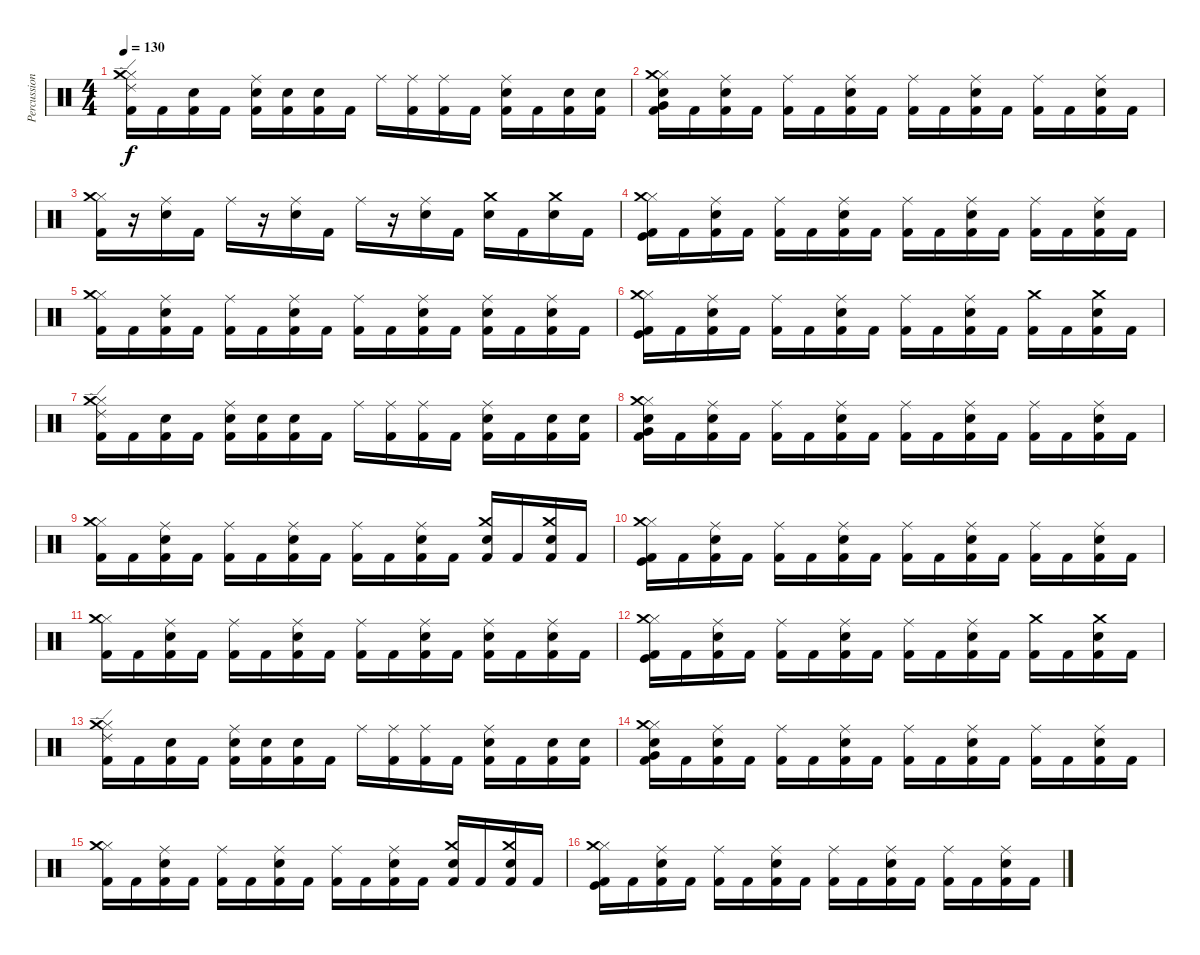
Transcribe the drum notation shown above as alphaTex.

\track ("Percussion" "Percussion") {instrument percussion}
\staff {score}
\articulation defaults
\ts (4 4)
\tempo 130
\clef neutral
\ks c
("Kick (hit) 2" "Hi-Hat (closed)" "Ride (edge) 2" "Crash medium (hit)").16{dy f} "Kick (hit) 2".16 ("Kick (hit) 2" "Snare (hit) 2").16 "Kick (hit) 2".16 ("Kick (hit) 2" "Snare (hit) 2" "Ride (middle)").16 ("Kick (hit) 2" "Snare (hit) 2").16 ("Kick (hit) 2" "Snare (hit) 2").16 "Kick (hit) 2".16 "Ride (middle)".16 ("Kick (hit) 2" "Ride (middle)").16 ("Kick (hit) 2" "Ride (middle)").16 "Kick (hit) 2".16 ("Kick (hit) 2" "Snare (hit) 2" "Ride (middle)").16 "Kick (hit) 2".16 ("Kick (hit) 2" "Snare (hit) 2").16 ("Kick (hit) 2" "Snare (hit) 2").16 |
("Kick (hit) 2" "Snare (hit) 2" "Hi-Hat (closed)" "Crash medium (hit)" "Very Low Tom (hit)").16 "Kick (hit) 2".16 ("Kick (hit) 2" "Snare (hit) 2" "Ride (middle)").16 "Kick (hit) 2".16 ("Kick (hit) 2" "Ride (middle)").16 "Kick (hit) 2".16 ("Kick (hit) 2" "Snare (hit) 2" "Ride (middle)").16 "Kick (hit) 2".16 ("Kick (hit) 2" "Ride (middle)").16 "Kick (hit) 2".16 ("Kick (hit) 2" "Snare (hit) 2" "Ride (middle)").16 "Kick (hit) 2".16 ("Kick (hit) 2" "Ride (middle)").16 "Kick (hit) 2".16 ("Kick (hit) 2" "Snare (hit) 2" "Ride (middle)").16 "Kick (hit) 2".16 |
("Kick (hit) 2" "Hi-Hat (closed)" "Crash medium (hit)").16 r.16 ("Snare (hit) 2" "Ride (middle)").16 "Kick (hit) 2".16 "Ride (middle)".16 r.16 ("Snare (hit) 2" "Ride (middle)").16 "Kick (hit) 2".16 "Ride (middle)".16 r.16 ("Snare (hit) 2" "Ride (middle)").16 "Kick (hit) 2".16 ("Snare (hit) 2" "Crash medium (hit)").16 "Kick (hit) 2".16 ("Snare (hit) 2" "Crash medium (hit)").16 "Kick (hit) 2".16 |
("Kick (hit) 2" "Hi-Hat (closed)" "Kick (hit)" "Crash medium (hit)").16 "Kick (hit) 2".16 ("Kick (hit) 2" "Snare (hit) 2" "Ride (middle)").16 "Kick (hit) 2".16 ("Kick (hit) 2" "Ride (middle)").16 "Kick (hit) 2".16 ("Kick (hit) 2" "Snare (hit) 2" "Ride (middle)").16 "Kick (hit) 2".16 ("Kick (hit) 2" "Ride (middle)").16 "Kick (hit) 2".16 ("Kick (hit) 2" "Snare (hit) 2" "Ride (middle)").16 "Kick (hit) 2".16 ("Kick (hit) 2" "Ride (middle)").16 "Kick (hit) 2".16 ("Kick (hit) 2" "Snare (hit) 2" "Ride (middle)").16 "Kick (hit) 2".16 |
("Kick (hit) 2" "Hi-Hat (closed)" "Crash medium (hit)").16 "Kick (hit) 2".16 ("Kick (hit) 2" "Snare (hit) 2" "Ride (middle)").16 "Kick (hit) 2".16 ("Kick (hit) 2" "Ride (middle)").16 "Kick (hit) 2".16 ("Kick (hit) 2" "Snare (hit) 2" "Ride (middle)").16 "Kick (hit) 2".16 ("Kick (hit) 2" "Ride (middle)").16 "Kick (hit) 2".16 ("Kick (hit) 2" "Snare (hit) 2" "Ride (middle)").16 "Kick (hit) 2".16 ("Kick (hit) 2" "Snare (hit) 2" "Ride (middle)").16 "Kick (hit) 2".16 ("Kick (hit) 2" "Snare (hit) 2" "Ride (middle)").16 "Kick (hit) 2".16 |
("Kick (hit) 2" "Hi-Hat (closed)" "Kick (hit)" "Crash medium (hit)").16 "Kick (hit) 2".16 ("Kick (hit) 2" "Snare (hit) 2" "Ride (middle)").16 "Kick (hit) 2".16 ("Kick (hit) 2" "Ride (middle)").16 "Kick (hit) 2".16 ("Kick (hit) 2" "Snare (hit) 2" "Ride (middle)").16 "Kick (hit) 2".16 ("Kick (hit) 2" "Ride (middle)").16 "Kick (hit) 2".16 ("Kick (hit) 2" "Snare (hit) 2" "Ride (middle)").16 "Kick (hit) 2".16 ("Kick (hit) 2" "Crash medium (hit)").16 "Kick (hit) 2".16 ("Kick (hit) 2" "Snare (hit) 2" "Crash medium (hit)").16 "Kick (hit) 2".16 |
("Kick (hit) 2" "Hi-Hat (closed)" "Ride (edge) 2" "Crash medium (hit)").16 "Kick (hit) 2".16 ("Kick (hit) 2" "Snare (hit) 2").16 "Kick (hit) 2".16 ("Kick (hit) 2" "Snare (hit) 2" "Ride (middle)").16 ("Kick (hit) 2" "Snare (hit) 2").16 ("Kick (hit) 2" "Snare (hit) 2").16 "Kick (hit) 2".16 "Ride (middle)".16 ("Kick (hit) 2" "Ride (middle)").16 ("Kick (hit) 2" "Ride (middle)").16 "Kick (hit) 2".16 ("Kick (hit) 2" "Snare (hit) 2" "Ride (middle)").16 "Kick (hit) 2".16 ("Kick (hit) 2" "Snare (hit) 2").16 ("Kick (hit) 2" "Snare (hit) 2").16 |
("Kick (hit) 2" "Snare (hit) 2" "Hi-Hat (closed)" "Crash medium (hit)" "Very Low Tom (hit)").16 "Kick (hit) 2".16 ("Kick (hit) 2" "Snare (hit) 2" "Ride (middle)").16 "Kick (hit) 2".16 ("Kick (hit) 2" "Ride (middle)").16 "Kick (hit) 2".16 ("Kick (hit) 2" "Snare (hit) 2" "Ride (middle)").16 "Kick (hit) 2".16 ("Kick (hit) 2" "Ride (middle)").16 "Kick (hit) 2".16 ("Kick (hit) 2" "Snare (hit) 2" "Ride (middle)").16 "Kick (hit) 2".16 ("Kick (hit) 2" "Ride (middle)").16 "Kick (hit) 2".16 ("Kick (hit) 2" "Snare (hit) 2" "Ride (middle)").16 "Kick (hit) 2".16 |
("Kick (hit) 2" "Hi-Hat (closed)" "Crash medium (hit)").16 "Kick (hit) 2".16 ("Kick (hit) 2" "Snare (hit) 2" "Ride (middle)").16 "Kick (hit) 2".16 ("Kick (hit) 2" "Ride (middle)").16 "Kick (hit) 2".16 ("Kick (hit) 2" "Snare (hit) 2" "Ride (middle)").16 "Kick (hit) 2".16 ("Kick (hit) 2" "Ride (middle)").16 "Kick (hit) 2".16 ("Kick (hit) 2" "Snare (hit) 2" "Ride (middle)").16 "Kick (hit) 2".16 ("Kick (hit) 2" "Snare (hit) 2" "Crash medium (hit)").16 "Kick (hit) 2".16 ("Kick (hit) 2" "Snare (hit) 2" "Crash medium (hit)").16 "Kick (hit) 2".16 |
("Kick (hit) 2" "Hi-Hat (closed)" "Kick (hit)" "Crash medium (hit)").16 "Kick (hit) 2".16 ("Kick (hit) 2" "Snare (hit) 2" "Ride (middle)").16 "Kick (hit) 2".16 ("Kick (hit) 2" "Ride (middle)").16 "Kick (hit) 2".16 ("Kick (hit) 2" "Snare (hit) 2" "Ride (middle)").16 "Kick (hit) 2".16 ("Kick (hit) 2" "Ride (middle)").16 "Kick (hit) 2".16 ("Kick (hit) 2" "Snare (hit) 2" "Ride (middle)").16 "Kick (hit) 2".16 ("Kick (hit) 2" "Ride (middle)").16 "Kick (hit) 2".16 ("Kick (hit) 2" "Snare (hit) 2" "Ride (middle)").16 "Kick (hit) 2".16 |
("Kick (hit) 2" "Hi-Hat (closed)" "Crash medium (hit)").16 "Kick (hit) 2".16 ("Kick (hit) 2" "Snare (hit) 2" "Ride (middle)").16 "Kick (hit) 2".16 ("Kick (hit) 2" "Ride (middle)").16 "Kick (hit) 2".16 ("Kick (hit) 2" "Snare (hit) 2" "Ride (middle)").16 "Kick (hit) 2".16 ("Kick (hit) 2" "Ride (middle)").16 "Kick (hit) 2".16 ("Kick (hit) 2" "Snare (hit) 2" "Ride (middle)").16 "Kick (hit) 2".16 ("Kick (hit) 2" "Snare (hit) 2" "Ride (middle)").16 "Kick (hit) 2".16 ("Kick (hit) 2" "Snare (hit) 2" "Ride (middle)").16 "Kick (hit) 2".16 |
("Kick (hit) 2" "Hi-Hat (closed)" "Kick (hit)" "Crash medium (hit)").16 "Kick (hit) 2".16 ("Kick (hit) 2" "Snare (hit) 2" "Ride (middle)").16 "Kick (hit) 2".16 ("Kick (hit) 2" "Ride (middle)").16 "Kick (hit) 2".16 ("Kick (hit) 2" "Snare (hit) 2" "Ride (middle)").16 "Kick (hit) 2".16 ("Kick (hit) 2" "Ride (middle)").16 "Kick (hit) 2".16 ("Kick (hit) 2" "Snare (hit) 2" "Ride (middle)").16 "Kick (hit) 2".16 ("Kick (hit) 2" "Crash medium (hit)").16 "Kick (hit) 2".16 ("Kick (hit) 2" "Snare (hit) 2" "Crash medium (hit)").16 "Kick (hit) 2".16 |
("Kick (hit) 2" "Hi-Hat (closed)" "Ride (edge) 2" "Crash medium (hit)").16 "Kick (hit) 2".16 ("Kick (hit) 2" "Snare (hit) 2").16 "Kick (hit) 2".16 ("Kick (hit) 2" "Snare (hit) 2" "Ride (middle)").16 ("Kick (hit) 2" "Snare (hit) 2").16 ("Kick (hit) 2" "Snare (hit) 2").16 "Kick (hit) 2".16 "Ride (middle)".16 ("Kick (hit) 2" "Ride (middle)").16 ("Kick (hit) 2" "Ride (middle)").16 "Kick (hit) 2".16 ("Kick (hit) 2" "Snare (hit) 2" "Ride (middle)").16 "Kick (hit) 2".16 ("Kick (hit) 2" "Snare (hit) 2").16 ("Kick (hit) 2" "Snare (hit) 2").16 |
("Kick (hit) 2" "Snare (hit) 2" "Hi-Hat (closed)" "Crash medium (hit)" "Very Low Tom (hit)").16 "Kick (hit) 2".16 ("Kick (hit) 2" "Snare (hit) 2" "Ride (middle)").16 "Kick (hit) 2".16 ("Kick (hit) 2" "Ride (middle)").16 "Kick (hit) 2".16 ("Kick (hit) 2" "Snare (hit) 2" "Ride (middle)").16 "Kick (hit) 2".16 ("Kick (hit) 2" "Ride (middle)").16 "Kick (hit) 2".16 ("Kick (hit) 2" "Snare (hit) 2" "Ride (middle)").16 "Kick (hit) 2".16 ("Kick (hit) 2" "Ride (middle)").16 "Kick (hit) 2".16 ("Kick (hit) 2" "Snare (hit) 2" "Ride (middle)").16 "Kick (hit) 2".16 |
("Kick (hit) 2" "Hi-Hat (closed)" "Crash medium (hit)").16 "Kick (hit) 2".16 ("Kick (hit) 2" "Snare (hit) 2" "Ride (middle)").16 "Kick (hit) 2".16 ("Kick (hit) 2" "Ride (middle)").16 "Kick (hit) 2".16 ("Kick (hit) 2" "Snare (hit) 2" "Ride (middle)").16 "Kick (hit) 2".16 ("Kick (hit) 2" "Ride (middle)").16 "Kick (hit) 2".16 ("Kick (hit) 2" "Snare (hit) 2" "Ride (middle)").16 "Kick (hit) 2".16 ("Kick (hit) 2" "Snare (hit) 2" "Crash medium (hit)").16 "Kick (hit) 2".16 ("Kick (hit) 2" "Snare (hit) 2" "Crash medium (hit)").16 "Kick (hit) 2".16 |
("Kick (hit) 2" "Hi-Hat (closed)" "Kick (hit)" "Crash medium (hit)").16 "Kick (hit) 2".16 ("Kick (hit) 2" "Snare (hit) 2" "Ride (middle)").16 "Kick (hit) 2".16 ("Kick (hit) 2" "Ride (middle)").16 "Kick (hit) 2".16 ("Kick (hit) 2" "Snare (hit) 2" "Ride (middle)").16 "Kick (hit) 2".16 ("Kick (hit) 2" "Ride (middle)").16 "Kick (hit) 2".16 ("Kick (hit) 2" "Snare (hit) 2" "Ride (middle)").16 "Kick (hit) 2".16 ("Kick (hit) 2" "Ride (middle)").16 "Kick (hit) 2".16 ("Kick (hit) 2" "Snare (hit) 2" "Ride (middle)").16 "Kick (hit) 2".16
